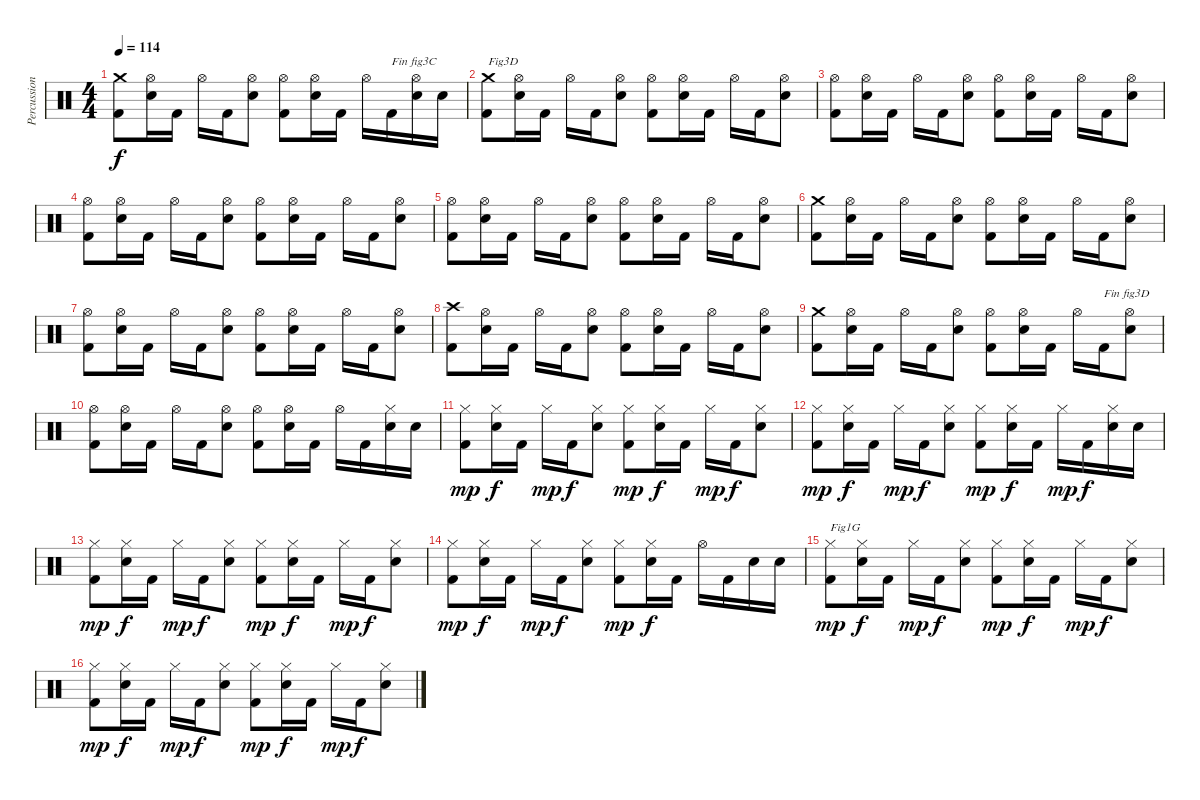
\track ("Percussions" "Percussion") {instrument percussion}
\staff {score}
\articulation defaults
\ts (4 4)
\tempo 114
\clef neutral
\ks c
("Kick (hit) 2" "Crash medium (hit)").8{dy f} ("Electric Snare (hit)" "Hi-Hat (open)").16 "Kick (hit) 2".16 "Hi-Hat (open)".16 "Kick (hit) 2".16 ("Electric Snare (hit)" "Hi-Hat (open)").8 ("Kick (hit) 2" "Hi-Hat (open)").8 ("Electric Snare (hit)" "Hi-Hat (open)").16 "Kick (hit) 2".16 "Hi-Hat (open)".16 "Kick (hit) 2".16{txt "Fin fig3C"} ("Electric Snare (hit)" "Hi-Hat (open)").16 "Electric Snare (hit)".16 |
("Kick (hit) 2" "Crash medium (hit)").8{txt "Fig3D"} ("Electric Snare (hit)" "Hi-Hat (open)").16 "Kick (hit) 2".16 "Hi-Hat (open)".16 "Kick (hit) 2".16 ("Electric Snare (hit)" "Hi-Hat (open)").8 ("Kick (hit) 2" "Hi-Hat (open)").8 ("Electric Snare (hit)" "Hi-Hat (open)").16 "Kick (hit) 2".16 "Hi-Hat (open)".16 "Kick (hit) 2".16 ("Electric Snare (hit)" "Hi-Hat (open)").8 |
("Kick (hit) 2" "Hi-Hat (open)").8 ("Electric Snare (hit)" "Hi-Hat (open)").16 "Kick (hit) 2".16 "Hi-Hat (open)".16 "Kick (hit) 2".16 ("Electric Snare (hit)" "Hi-Hat (open)").8 ("Kick (hit) 2" "Hi-Hat (open)").8 ("Electric Snare (hit)" "Hi-Hat (open)").16 "Kick (hit) 2".16 "Hi-Hat (open)".16 "Kick (hit) 2".16 ("Electric Snare (hit)" "Hi-Hat (open)").8 |
("Kick (hit) 2" "Hi-Hat (open)").8 ("Electric Snare (hit)" "Hi-Hat (open)").16 "Kick (hit) 2".16 "Hi-Hat (open)".16 "Kick (hit) 2".16 ("Electric Snare (hit)" "Hi-Hat (open)").8 ("Kick (hit) 2" "Hi-Hat (open)").8 ("Electric Snare (hit)" "Hi-Hat (open)").16 "Kick (hit) 2".16 "Hi-Hat (open)".16 "Kick (hit) 2".16 ("Electric Snare (hit)" "Hi-Hat (open)").8 |
("Kick (hit) 2" "Hi-Hat (open)").8 ("Electric Snare (hit)" "Hi-Hat (open)").16 "Kick (hit) 2".16 "Hi-Hat (open)".16 "Kick (hit) 2".16 ("Electric Snare (hit)" "Hi-Hat (open)").8 ("Kick (hit) 2" "Hi-Hat (open)").8 ("Electric Snare (hit)" "Hi-Hat (open)").16 "Kick (hit) 2".16 "Hi-Hat (open)".16 "Kick (hit) 2".16 ("Electric Snare (hit)" "Hi-Hat (open)").8 |
("Kick (hit) 2" "Crash medium (hit)").8 ("Electric Snare (hit)" "Hi-Hat (open)").16 "Kick (hit) 2".16 "Hi-Hat (open)".16 "Kick (hit) 2".16 ("Electric Snare (hit)" "Hi-Hat (open)").8 ("Kick (hit) 2" "Hi-Hat (open)").8 ("Electric Snare (hit)" "Hi-Hat (open)").16 "Kick (hit) 2".16 "Hi-Hat (open)".16 "Kick (hit) 2".16 ("Electric Snare (hit)" "Hi-Hat (open)").8 |
("Kick (hit) 2" "Hi-Hat (open)").8 ("Electric Snare (hit)" "Hi-Hat (open)").16 "Kick (hit) 2".16 "Hi-Hat (open)".16 "Kick (hit) 2".16 ("Electric Snare (hit)" "Hi-Hat (open)").8 ("Kick (hit) 2" "Hi-Hat (open)").8 ("Electric Snare (hit)" "Hi-Hat (open)").16 "Kick (hit) 2".16 "Hi-Hat (open)".16 "Kick (hit) 2".16 ("Electric Snare (hit)" "Hi-Hat (open)").8 |
("Kick (hit) 2" "Crash high (hit)").8 ("Electric Snare (hit)" "Hi-Hat (open)").16 "Kick (hit) 2".16 "Hi-Hat (open)".16 "Kick (hit) 2".16 ("Electric Snare (hit)" "Hi-Hat (open)").8 ("Kick (hit) 2" "Hi-Hat (open)").8 ("Electric Snare (hit)" "Hi-Hat (open)").16 "Kick (hit) 2".16 "Hi-Hat (open)".16 "Kick (hit) 2".16 ("Electric Snare (hit)" "Hi-Hat (open)").8 |
("Kick (hit) 2" "Crash medium (hit)").8 ("Electric Snare (hit)" "Hi-Hat (open)").16 "Kick (hit) 2".16 "Hi-Hat (open)".16 "Kick (hit) 2".16 ("Electric Snare (hit)" "Hi-Hat (open)").8 ("Kick (hit) 2" "Hi-Hat (open)").8 ("Electric Snare (hit)" "Hi-Hat (open)").16 "Kick (hit) 2".16 "Hi-Hat (open)".16 "Kick (hit) 2".16{txt "Fin fig3D"} ("Electric Snare (hit)" "Hi-Hat (open)").8 |
("Kick (hit) 2" "Hi-Hat (open)").8 ("Electric Snare (hit)" "Hi-Hat (open)").16 "Kick (hit) 2".16 "Hi-Hat (open)".16 "Kick (hit) 2".16 ("Electric Snare (hit)" "Hi-Hat (open)").8 ("Kick (hit) 2" "Hi-Hat (open)").8 ("Electric Snare (hit)" "Hi-Hat (open)").16 "Kick (hit) 2".16 "Hi-Hat (open)".16 "Kick (hit) 2".16 ("Electric Snare (hit)" "Hi-Hat (closed)").16 "Electric Snare (hit)".16 |
("Kick (hit) 2" "Hi-Hat (closed)").8{dy mp} ("Electric Snare (hit)" "Hi-Hat (closed)").16{dy f} "Kick (hit) 2".16 "Hi-Hat (closed)".16{dy mp} "Kick (hit) 2".16{dy f} ("Electric Snare (hit)" "Hi-Hat (closed)").8 ("Kick (hit) 2" "Hi-Hat (closed)").8{dy mp} ("Electric Snare (hit)" "Hi-Hat (closed)").16{dy f} "Kick (hit) 2".16 "Hi-Hat (closed)".16{dy mp} "Kick (hit) 2".16{dy f} ("Electric Snare (hit)" "Hi-Hat (closed)").8 |
("Kick (hit) 2" "Hi-Hat (closed)").8{dy mp} ("Electric Snare (hit)" "Hi-Hat (closed)").16{dy f} "Kick (hit) 2".16 "Hi-Hat (closed)".16{dy mp} "Kick (hit) 2".16{dy f} ("Electric Snare (hit)" "Hi-Hat (closed)").8 ("Kick (hit) 2" "Hi-Hat (closed)").8{dy mp} ("Electric Snare (hit)" "Hi-Hat (closed)").16{dy f} "Kick (hit) 2".16 "Hi-Hat (closed)".16{dy mp} "Kick (hit) 2".16{dy f} ("Electric Snare (hit)" "Hi-Hat (closed)").16 "Electric Snare (hit)".16 |
("Kick (hit) 2" "Hi-Hat (closed)").8{dy mp} ("Electric Snare (hit)" "Hi-Hat (closed)").16{dy f} "Kick (hit) 2".16 "Hi-Hat (closed)".16{dy mp} "Kick (hit) 2".16{dy f} ("Electric Snare (hit)" "Hi-Hat (closed)").8 ("Kick (hit) 2" "Hi-Hat (closed)").8{dy mp} ("Electric Snare (hit)" "Hi-Hat (closed)").16{dy f} "Kick (hit) 2".16 "Hi-Hat (closed)".16{dy mp} "Kick (hit) 2".16{dy f} ("Electric Snare (hit)" "Hi-Hat (closed)").8 |
("Kick (hit) 2" "Hi-Hat (closed)").8{dy mp} ("Electric Snare (hit)" "Hi-Hat (closed)").16{dy f} "Kick (hit) 2".16 "Hi-Hat (closed)".16{dy mp} "Kick (hit) 2".16{dy f} ("Electric Snare (hit)" "Hi-Hat (closed)").8 ("Kick (hit) 2" "Hi-Hat (closed)").8{dy mp} ("Electric Snare (hit)" "Hi-Hat (closed)").16{dy f} "Kick (hit) 2".16 "Hi-Hat (open)".16 "Kick (hit) 2".16 "Electric Snare (hit)".16 "Electric Snare (hit)".16 |
("Kick (hit) 2" "Hi-Hat (closed)").8{txt "Fig1G" dy mp} ("Electric Snare (hit)" "Hi-Hat (closed)").16{dy f} "Kick (hit) 2".16 "Hi-Hat (closed)".16{dy mp} "Kick (hit) 2".16{dy f} ("Electric Snare (hit)" "Hi-Hat (closed)").8 ("Kick (hit) 2" "Hi-Hat (closed)").8{dy mp} ("Electric Snare (hit)" "Hi-Hat (closed)").16{dy f} "Kick (hit) 2".16 "Hi-Hat (closed)".16{dy mp} "Kick (hit) 2".16{dy f} ("Electric Snare (hit)" "Hi-Hat (closed)").8 |
("Kick (hit) 2" "Hi-Hat (closed)").8{dy mp} ("Electric Snare (hit)" "Hi-Hat (closed)").16{dy f} "Kick (hit) 2".16 "Hi-Hat (closed)".16{dy mp} "Kick (hit) 2".16{dy f} ("Electric Snare (hit)" "Hi-Hat (closed)").8 ("Kick (hit) 2" "Hi-Hat (closed)").8{dy mp} ("Electric Snare (hit)" "Hi-Hat (closed)").16{dy f} "Kick (hit) 2".16 "Hi-Hat (closed)".16{dy mp} "Kick (hit) 2".16{dy f} ("Electric Snare (hit)" "Hi-Hat (closed)").8
